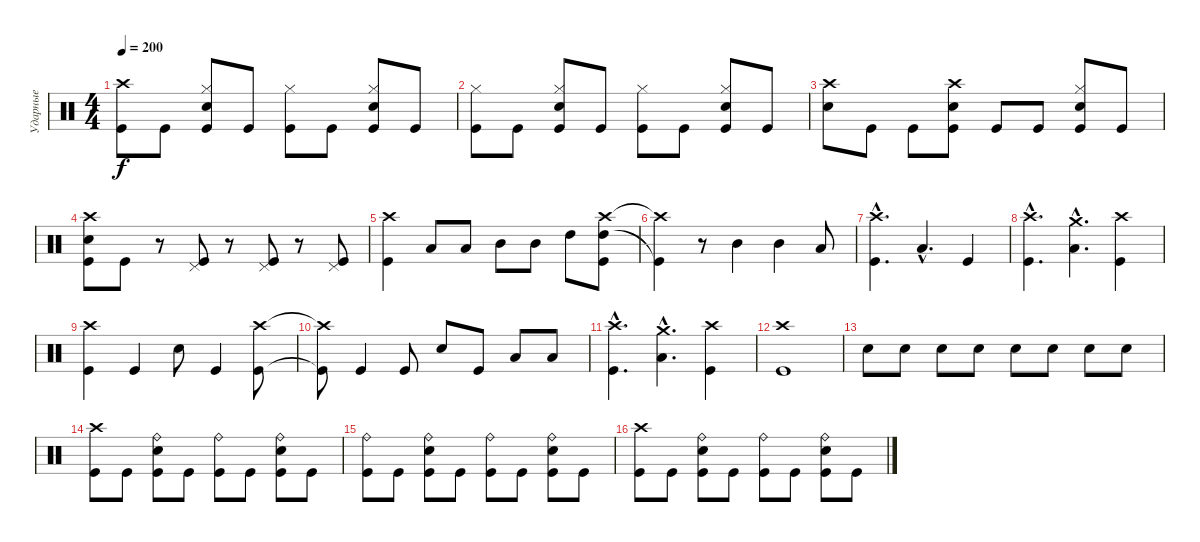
\track ("Ударные" "Ударные") {instrument percussion}
\staff {score}
\articulation defaults
\ts (4 4)
\tempo 200
\clef neutral
\ks c
("Crash high (hit)" "Kick (hit)").8{dy f} "Kick (hit)".8 ("Hi-Hat (closed)" "Electric Snare (hit)" "Kick (hit)").8 "Kick (hit)".8 ("Hi-Hat (closed)" "Kick (hit)").8 "Kick (hit)".8 ("Hi-Hat (closed)" "Electric Snare (hit)" "Kick (hit)").8 "Kick (hit)".8 |
("Hi-Hat (closed)" "Kick (hit)").8 "Kick (hit)".8 ("Hi-Hat (closed)" "Electric Snare (hit)" "Kick (hit)").8 "Kick (hit)".8 ("Hi-Hat (closed)" "Kick (hit)").8 "Kick (hit)".8 ("Hi-Hat (closed)" "Electric Snare (hit)" "Kick (hit)").8 "Kick (hit)".8 |
("Crash high (hit)" "Electric Snare (hit)").8 "Kick (hit)".8 "Kick (hit)".8 ("Crash high (hit)" "Electric Snare (hit)" "Kick (hit)").8 "Kick (hit)".8 "Kick (hit)".8 ("Hi-Hat (closed)" "Electric Snare (hit)" "Kick (hit)").8 "Kick (hit)".8 |
("Crash high (hit)" "Electric Snare (hit)" "Kick (hit)").8 "Kick (hit)".8 r.8 ("Pedal Hi-Hat (hit)" "Kick (hit)").8 r.8 ("Pedal Hi-Hat (hit)" "Kick (hit)").8 r.8 ("Pedal Hi-Hat (hit)" "Kick (hit)").8 |
("Crash high (hit)" "Kick (hit)").4 "Low Tom (hit)".8 "Low Tom (hit)".8 "Mid Tom (hit)".8 "Mid Tom (hit)".8 "High Tom (hit)".8 ("Crash high (hit)" "High Tom (hit)" "Kick (hit)").8 |
("Crash high (hit)"{t} "Kick (hit)"{t}).4 r.8 "Mid Tom (hit)".4 "Mid Tom (hit)".4 "Low Tom (hit)".8 |
("Crash high (hit)"{hac} "Kick (hit)"{hac}).4{d} "Low Tom (hit)"{hac}.4{d} "Kick (hit)".4 |
("Crash high (hit)"{hac} "Kick (hit)"{hac}).4{d} ("Crash medium (hit)"{hac} "Low Tom (hit)"{hac}).4{d} ("Crash high (hit)" "Kick (hit)").4 |
("Crash high (hit)" "Kick (hit)").4 "Kick (hit)".4 "Electric Snare (hit)".8 "Kick (hit)".4 ("Crash high (hit)" "Kick (hit)").8 |
("Crash high (hit)"{t} "Kick (hit)"{t}).8 "Kick (hit)".4 "Kick (hit)".8 "Electric Snare (hit)".8 "Kick (hit)".8 "Low Tom (hit)".8 "Low Tom (hit)".8 |
("Crash high (hit)"{hac} "Kick (hit)"{hac}).4{d} ("Crash medium (hit)"{hac} "Low Tom (hit)"{hac}).4{d} ("Crash high (hit)" "Kick (hit)").4 |
("Crash high (hit)" "Kick (hit)").1 |
"Electric Snare (hit)".8 "Electric Snare (hit)".8 "Electric Snare (hit)".8 "Electric Snare (hit)".8 "Electric Snare (hit)".8 "Electric Snare (hit)".8 "Electric Snare (hit)".8 "Electric Snare (hit)".8 |
("Crash high (hit)" "Kick (hit)").8 "Kick (hit)".8 ("Ride (bell)" "Electric Snare (hit)" "Kick (hit)").8 "Kick (hit)".8 ("Ride (bell)" "Kick (hit)").8 "Kick (hit)".8 ("Ride (bell)" "Electric Snare (hit)" "Kick (hit)").8 "Kick (hit)".8 |
("Ride (bell)" "Kick (hit)").8 "Kick (hit)".8 ("Ride (bell)" "Electric Snare (hit)" "Kick (hit)").8 "Kick (hit)".8 ("Ride (bell)" "Kick (hit)").8 "Kick (hit)".8 ("Ride (bell)" "Electric Snare (hit)" "Kick (hit)").8 "Kick (hit)".8 |
("Crash high (hit)" "Kick (hit)").8 "Kick (hit)".8 ("Ride (bell)" "Electric Snare (hit)" "Kick (hit)").8 "Kick (hit)".8 ("Ride (bell)" "Kick (hit)").8 "Kick (hit)".8 ("Ride (bell)" "Electric Snare (hit)" "Kick (hit)").8 "Kick (hit)".8
